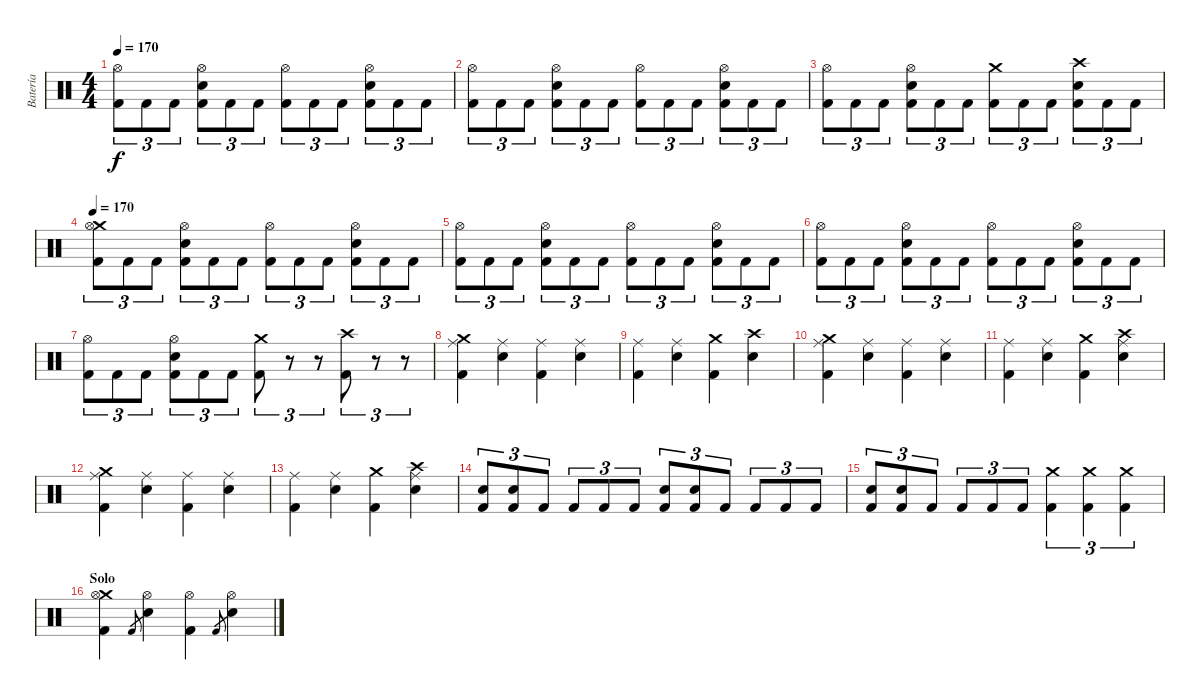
\track ("Batería" "Batería") {instrument percussion}
\staff {score}
\articulation defaults
\ts (4 4)
\tempo 170
\clef neutral
\ks c
("Hi-Hat (open)" "Kick (hit) 2").8{tu (3 2) dy f} "Kick (hit) 2".8{tu (3 2)} "Kick (hit) 2".8{tu (3 2)} ("Hi-Hat (open)" "Snare (hit) 2" "Kick (hit) 2").8{tu (3 2)} "Kick (hit) 2".8{tu (3 2)} "Kick (hit) 2".8{tu (3 2)} ("Hi-Hat (open)" "Kick (hit) 2").8{tu (3 2)} "Kick (hit) 2".8{tu (3 2)} "Kick (hit) 2".8{tu (3 2)} ("Hi-Hat (open)" "Snare (hit) 2" "Kick (hit) 2").8{tu (3 2)} "Kick (hit) 2".8{tu (3 2)} "Kick (hit) 2".8{tu (3 2)} |
("Hi-Hat (open)" "Kick (hit) 2").8{tu (3 2)} "Kick (hit) 2".8{tu (3 2)} "Kick (hit) 2".8{tu (3 2)} ("Hi-Hat (open)" "Snare (hit) 2" "Kick (hit) 2").8{tu (3 2)} "Kick (hit) 2".8{tu (3 2)} "Kick (hit) 2".8{tu (3 2)} ("Hi-Hat (open)" "Kick (hit) 2").8{tu (3 2)} "Kick (hit) 2".8{tu (3 2)} "Kick (hit) 2".8{tu (3 2)} ("Hi-Hat (open)" "Snare (hit) 2" "Kick (hit) 2").8{tu (3 2)} "Kick (hit) 2".8{tu (3 2)} "Kick (hit) 2".8{tu (3 2)} |
("Hi-Hat (open)" "Kick (hit) 2").8{tu (3 2)} "Kick (hit) 2".8{tu (3 2)} "Kick (hit) 2".8{tu (3 2)} ("Hi-Hat (open)" "Snare (hit) 2" "Kick (hit) 2").8{tu (3 2)} "Kick (hit) 2".8{tu (3 2)} "Kick (hit) 2".8{tu (3 2)} ("Crash medium (hit)" "Kick (hit) 2").8{tu (3 2)} "Kick (hit) 2".8{tu (3 2)} "Kick (hit) 2".8{tu (3 2)} ("Crash high (hit)" "Snare (hit) 2" "Kick (hit) 2").8{tu (3 2)} "Kick (hit) 2".8{tu (3 2)} "Kick (hit) 2".8{tu (3 2)} |
\tempo 170
("Crash medium (hit)" "Hi-Hat (open)" "Kick (hit) 2").8{tu (3 2)} "Kick (hit) 2".8{tu (3 2)} "Kick (hit) 2".8{tu (3 2)} ("Hi-Hat (open)" "Snare (hit) 2" "Kick (hit) 2").8{tu (3 2)} "Kick (hit) 2".8{tu (3 2)} "Kick (hit) 2".8{tu (3 2)} ("Hi-Hat (open)" "Kick (hit) 2").8{tu (3 2)} "Kick (hit) 2".8{tu (3 2)} "Kick (hit) 2".8{tu (3 2)} ("Hi-Hat (open)" "Snare (hit) 2" "Kick (hit) 2").8{tu (3 2)} "Kick (hit) 2".8{tu (3 2)} "Kick (hit) 2".8{tu (3 2)} |
("Hi-Hat (open)" "Kick (hit) 2").8{tu (3 2)} "Kick (hit) 2".8{tu (3 2)} "Kick (hit) 2".8{tu (3 2)} ("Hi-Hat (open)" "Snare (hit) 2" "Kick (hit) 2").8{tu (3 2)} "Kick (hit) 2".8{tu (3 2)} "Kick (hit) 2".8{tu (3 2)} ("Hi-Hat (open)" "Kick (hit) 2").8{tu (3 2)} "Kick (hit) 2".8{tu (3 2)} "Kick (hit) 2".8{tu (3 2)} ("Hi-Hat (open)" "Snare (hit) 2" "Kick (hit) 2").8{tu (3 2)} "Kick (hit) 2".8{tu (3 2)} "Kick (hit) 2".8{tu (3 2)} |
("Hi-Hat (open)" "Kick (hit) 2").8{tu (3 2)} "Kick (hit) 2".8{tu (3 2)} "Kick (hit) 2".8{tu (3 2)} ("Hi-Hat (open)" "Snare (hit) 2" "Kick (hit) 2").8{tu (3 2)} "Kick (hit) 2".8{tu (3 2)} "Kick (hit) 2".8{tu (3 2)} ("Hi-Hat (open)" "Kick (hit) 2").8{tu (3 2)} "Kick (hit) 2".8{tu (3 2)} "Kick (hit) 2".8{tu (3 2)} ("Hi-Hat (open)" "Snare (hit) 2" "Kick (hit) 2").8{tu (3 2)} "Kick (hit) 2".8{tu (3 2)} "Kick (hit) 2".8{tu (3 2)} |
("Hi-Hat (open)" "Kick (hit) 2").8{tu (3 2)} "Kick (hit) 2".8{tu (3 2)} "Kick (hit) 2".8{tu (3 2)} ("Hi-Hat (open)" "Snare (hit) 2" "Kick (hit) 2").8{tu (3 2)} "Kick (hit) 2".8{tu (3 2)} "Kick (hit) 2".8{tu (3 2)} ("Crash medium (hit)" "Kick (hit) 2").8{tu (3 2)} r.8{tu (3 2)} r.8{tu (3 2)} ("Crash high (hit)" "Kick (hit) 2").8{tu (3 2)} r.8{tu (3 2)} r.8{tu (3 2)} |
("Crash medium (hit)" "Ride (middle)" "Kick (hit) 2").4 ("Ride (middle)" "Snare (hit) 2").4 ("Ride (middle)" "Kick (hit) 2").4 ("Ride (middle)" "Snare (hit) 2").4 |
("Ride (middle)" "Kick (hit) 2").4 ("Ride (middle)" "Snare (hit) 2").4 ("Crash medium (hit)" "Kick (hit) 2").4 ("Crash high (hit)" "Snare (hit) 2").4 |
("Crash medium (hit)" "Ride (middle)" "Kick (hit) 2").4 ("Ride (middle)" "Snare (hit) 2").4 ("Ride (middle)" "Kick (hit) 2").4 ("Ride (middle)" "Snare (hit) 2").4 |
("Ride (middle)" "Kick (hit) 2").4 ("Ride (middle)" "Snare (hit) 2").4 ("Crash medium (hit)" "Kick (hit) 2").4 ("Crash high (hit)" "Ride (middle)" "Snare (hit) 2").4 |
("Crash medium (hit)" "Ride (middle)" "Kick (hit) 2").4 ("Ride (middle)" "Snare (hit) 2").4 ("Ride (middle)" "Kick (hit) 2").4 ("Ride (middle)" "Snare (hit) 2").4 |
("Ride (middle)" "Kick (hit) 2").4 ("Ride (middle)" "Snare (hit) 2").4 ("Crash medium (hit)" "Kick (hit) 2").4 ("Crash high (hit)" "Ride (middle)" "Snare (hit) 2").4 |
("Snare (hit) 2" "Kick (hit) 2").8{tu (3 2)} ("Snare (hit) 2" "Kick (hit) 2").8{tu (3 2)} "Kick (hit) 2".8{tu (3 2)} "Kick (hit) 2".8{tu (3 2)} "Kick (hit) 2".8{tu (3 2)} "Kick (hit) 2".8{tu (3 2)} ("Snare (hit) 2" "Kick (hit) 2").8{tu (3 2)} ("Snare (hit) 2" "Kick (hit) 2").8{tu (3 2)} "Kick (hit) 2".8{tu (3 2)} "Kick (hit) 2".8{tu (3 2)} "Kick (hit) 2".8{tu (3 2)} "Kick (hit) 2".8{tu (3 2)} |
("Snare (hit) 2" "Kick (hit) 2").8{tu (3 2)} ("Snare (hit) 2" "Kick (hit) 2").8{tu (3 2)} "Kick (hit) 2".8{tu (3 2)} "Kick (hit) 2".8{tu (3 2)} "Kick (hit) 2".8{tu (3 2)} "Kick (hit) 2".8{tu (3 2)} ("Crash medium (hit)" "Kick (hit) 2").4{tu (3 2)} ("Crash medium (hit)" "Kick (hit) 2").4{tu (3 2)} ("Crash medium (hit)" "Kick (hit) 2").4{tu (3 2)} |
\section ("" "Solo")
("Crash medium (hit)" "Hi-Hat (open)" "Kick (hit) 2").4 "Kick (hit) 2".8{gr} ("Hi-Hat (open)" "Snare (hit) 2").4 ("Hi-Hat (open)" "Kick (hit) 2").4 "Kick (hit) 2".8{gr} ("Hi-Hat (open)" "Snare (hit) 2").4
